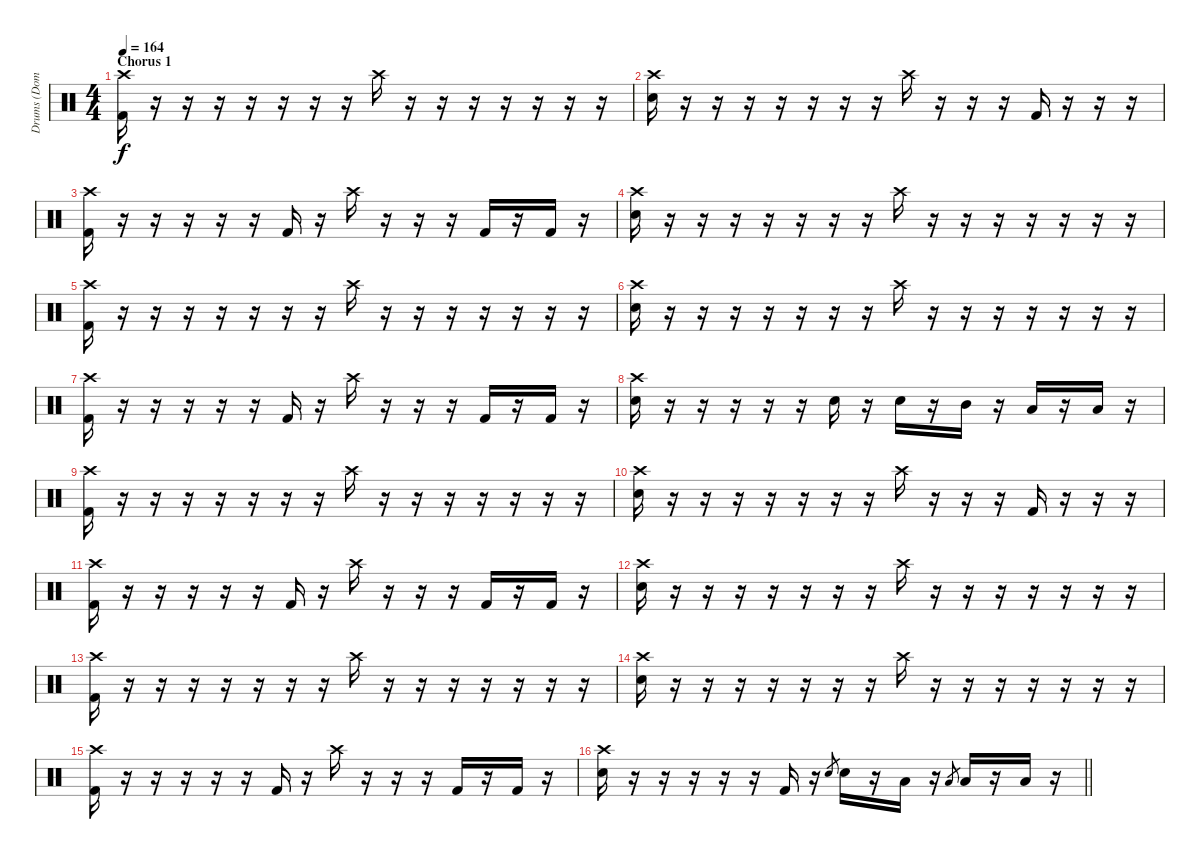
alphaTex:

\track ("Drums (Dominik)" "Drums (Dom") {instrument percussion}
\staff {score}
\articulation defaults
\ts (4 4)
\section ("" "Chorus 1")
\tempo 164
\clef neutral
\ks c
("Crash high (hit)" "Kick (hit) 2").16{dy f} r.16 r.16 r.16 r.16 r.16 r.16 r.16 "Crash high (hit)".16 r.16 r.16 r.16 r.16 r.16 r.16 r.16 |
("Crash high (hit)" "Electric Snare (hit)").16 r.16 r.16 r.16 r.16 r.16 r.16 r.16 "Crash high (hit)".16 r.16 r.16 r.16 "Kick (hit) 2".16 r.16 r.16 r.16 |
("Crash high (hit)" "Kick (hit) 2").16 r.16 r.16 r.16 r.16 r.16 "Kick (hit) 2".16 r.16 "Crash high (hit)".16 r.16 r.16 r.16 "Kick (hit) 2".16 r.16 "Kick (hit) 2".16 r.16 |
("Crash high (hit)" "Electric Snare (hit)").16 r.16 r.16 r.16 r.16 r.16 r.16 r.16 "Crash high (hit)".16 r.16 r.16 r.16 r.16 r.16 r.16 r.16 |
("Crash high (hit)" "Kick (hit) 2").16 r.16 r.16 r.16 r.16 r.16 r.16 r.16 "Crash high (hit)".16 r.16 r.16 r.16 r.16 r.16 r.16 r.16 |
("Crash high (hit)" "Electric Snare (hit)").16 r.16 r.16 r.16 r.16 r.16 r.16 r.16 "Crash high (hit)".16 r.16 r.16 r.16 r.16 r.16 r.16 r.16 |
("Crash high (hit)" "Kick (hit) 2").16 r.16 r.16 r.16 r.16 r.16 "Kick (hit) 2".16 r.16 "Crash high (hit)".16 r.16 r.16 r.16 "Kick (hit) 2".16 r.16 "Kick (hit) 2".16 r.16 |
("Crash high (hit)" "Electric Snare (hit)").16 r.16 r.16 r.16 r.16 r.16 "Electric Snare (hit)".16 r.16 "Electric Snare (hit)".16 r.16 "Mid Tom (hit)".16 r.16 "Low Tom (hit)".16 r.16 "Low Floor Tom (hit)".16 r.16 |
("Crash high (hit)" "Kick (hit) 2").16 r.16 r.16 r.16 r.16 r.16 r.16 r.16 "Crash high (hit)".16 r.16 r.16 r.16 r.16 r.16 r.16 r.16 |
("Crash high (hit)" "Electric Snare (hit)").16 r.16 r.16 r.16 r.16 r.16 r.16 r.16 "Crash high (hit)".16 r.16 r.16 r.16 "Kick (hit) 2".16 r.16 r.16 r.16 |
("Crash high (hit)" "Kick (hit) 2").16 r.16 r.16 r.16 r.16 r.16 "Kick (hit) 2".16 r.16 "Crash high (hit)".16 r.16 r.16 r.16 "Kick (hit) 2".16 r.16 "Kick (hit) 2".16 r.16 |
("Crash high (hit)" "Electric Snare (hit)").16 r.16 r.16 r.16 r.16 r.16 r.16 r.16 "Crash high (hit)".16 r.16 r.16 r.16 r.16 r.16 r.16 r.16 |
("Crash high (hit)" "Kick (hit) 2").16 r.16 r.16 r.16 r.16 r.16 r.16 r.16 "Crash high (hit)".16 r.16 r.16 r.16 r.16 r.16 r.16 r.16 |
("Crash high (hit)" "Electric Snare (hit)").16 r.16 r.16 r.16 r.16 r.16 r.16 r.16 "Crash high (hit)".16 r.16 r.16 r.16 r.16 r.16 r.16 r.16 |
("Crash high (hit)" "Kick (hit) 2").16 r.16 r.16 r.16 r.16 r.16 "Kick (hit) 2".16 r.16 "Crash high (hit)".16 r.16 r.16 r.16 "Kick (hit) 2".16 r.16 "Kick (hit) 2".16 r.16 |
\barLineRight lightlight
("Crash high (hit)" "Electric Snare (hit)").16 r.16 r.16 r.16 r.16 r.16 "Kick (hit) 2".16 r.16 "Electric Snare (hit)".8{gr} "Electric Snare (hit)".16 r.16 "Low Tom (hit)".16 r.16 "Low Floor Tom (hit)".8{gr} "Low Floor Tom (hit)".16 r.16 "Low Floor Tom (hit)".16 r.16
